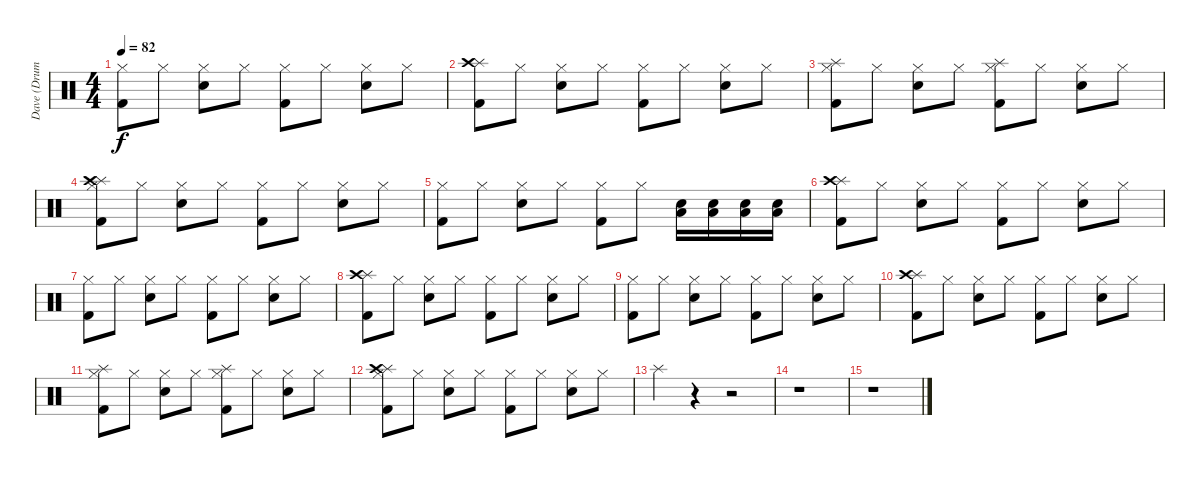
\track ("Dave (Drums)" "Dave (Drum") {instrument percussion}
\staff {score}
\articulation defaults
\ts (4 4)
\tempo 82
\clef neutral
\ks c
("Hi-Hat (closed)" "Kick (hit) 2").8{dy f} "Hi-Hat (closed)".8 ("Hi-Hat (closed)" "Snare (hit) 2").8 "Hi-Hat (closed)".8 ("Hi-Hat (closed)" "Kick (hit) 2").8 "Hi-Hat (closed)".8 ("Hi-Hat (closed)" "Snare (hit) 2").8 "Hi-Hat (closed)".8 |
("Splash (hit)" "Crash high (hit)" "Kick (hit) 2").8 "Hi-Hat (closed)".8 ("Hi-Hat (closed)" "Snare (hit) 2").8 "Hi-Hat (closed)".8 ("Hi-Hat (closed)" "Kick (hit) 2").8 "Hi-Hat (closed)".8 ("Hi-Hat (closed)" "Snare (hit) 2").8 "Hi-Hat (closed)".8 |
("Hi-Hat (closed)" "Splash (hit)" "Kick (hit) 2").8 "Hi-Hat (closed)".8 ("Hi-Hat (closed)" "Snare (hit) 2").8 "Hi-Hat (closed)".8 ("Hi-Hat (closed)" "Splash (hit)" "Kick (hit) 2").8 "Hi-Hat (closed)".8 ("Hi-Hat (closed)" "Snare (hit) 2").8 "Hi-Hat (closed)".8 |
("Hi-Hat (closed)" "Splash (hit)" "Crash high (hit)" "Kick (hit) 2").8 "Hi-Hat (closed)".8 ("Hi-Hat (closed)" "Snare (hit) 2").8 "Hi-Hat (closed)".8 ("Hi-Hat (closed)" "Kick (hit) 2").8 "Hi-Hat (closed)".8 ("Hi-Hat (closed)" "Snare (hit) 2").8 "Hi-Hat (closed)".8 |
("Hi-Hat (closed)" "Kick (hit) 2").8 "Hi-Hat (closed)".8 ("Hi-Hat (closed)" "Snare (hit) 2").8 "Hi-Hat (closed)".8 ("Hi-Hat (closed)" "Kick (hit) 2").8 "Hi-Hat (closed)".8 ("Low Tom (hit)" "Snare (hit) 2").16 ("Low Tom (hit)" "Snare (hit) 2").16 ("Low Tom (hit)" "Snare (hit) 2").16 ("Low Tom (hit)" "Snare (hit) 2").16 |
("Splash (hit)" "Crash high (hit)" "Kick (hit) 2").8 "Hi-Hat (closed)".8 ("Hi-Hat (closed)" "Snare (hit) 2").8 "Hi-Hat (closed)".8 ("Hi-Hat (closed)" "Kick (hit) 2").8 "Hi-Hat (closed)".8 ("Hi-Hat (closed)" "Snare (hit) 2").8 "Hi-Hat (closed)".8 |
("Hi-Hat (closed)" "Kick (hit) 2").8 "Hi-Hat (closed)".8 ("Hi-Hat (closed)" "Snare (hit) 2").8 "Hi-Hat (closed)".8 ("Hi-Hat (closed)" "Kick (hit) 2").8 "Hi-Hat (closed)".8 ("Hi-Hat (closed)" "Snare (hit) 2").8 "Hi-Hat (closed)".8 |
("Splash (hit)" "Crash high (hit)" "Kick (hit) 2").8 "Hi-Hat (closed)".8 ("Hi-Hat (closed)" "Snare (hit) 2").8 "Hi-Hat (closed)".8 ("Hi-Hat (closed)" "Kick (hit) 2").8 "Hi-Hat (closed)".8 ("Hi-Hat (closed)" "Snare (hit) 2").8 "Hi-Hat (closed)".8 |
("Hi-Hat (closed)" "Kick (hit) 2").8 "Hi-Hat (closed)".8 ("Hi-Hat (closed)" "Snare (hit) 2").8 "Hi-Hat (closed)".8 ("Hi-Hat (closed)" "Kick (hit) 2").8 "Hi-Hat (closed)".8 ("Hi-Hat (closed)" "Snare (hit) 2").8 "Hi-Hat (closed)".8 |
("Splash (hit)" "Crash high (hit)" "Kick (hit) 2").8 "Hi-Hat (closed)".8 ("Hi-Hat (closed)" "Snare (hit) 2").8 "Hi-Hat (closed)".8 ("Hi-Hat (closed)" "Kick (hit) 2").8 "Hi-Hat (closed)".8 ("Hi-Hat (closed)" "Snare (hit) 2").8 "Hi-Hat (closed)".8 |
("Hi-Hat (closed)" "Splash (hit)" "Kick (hit) 2").8 "Hi-Hat (closed)".8 ("Hi-Hat (closed)" "Snare (hit) 2").8 "Hi-Hat (closed)".8 ("Hi-Hat (closed)" "Splash (hit)" "Kick (hit) 2").8 "Hi-Hat (closed)".8 ("Hi-Hat (closed)" "Snare (hit) 2").8 "Hi-Hat (closed)".8 |
("Hi-Hat (closed)" "Splash (hit)" "Crash high (hit)" "Kick (hit) 2").8 "Hi-Hat (closed)".8 ("Hi-Hat (closed)" "Snare (hit) 2").8 "Hi-Hat (closed)".8 ("Hi-Hat (closed)" "Kick (hit) 2").8 "Hi-Hat (closed)".8 ("Hi-Hat (closed)" "Snare (hit) 2").8 "Hi-Hat (closed)".8 |
"Splash (hit)".4 r.4 r.2 |
r.1 |
r.1
